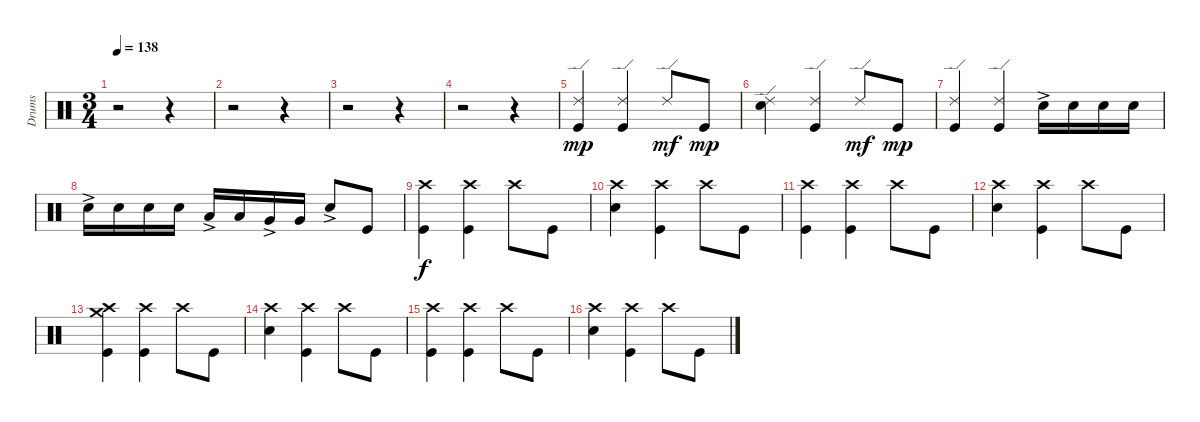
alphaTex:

\track ("Drums" "Drums") {instrument percussion}
\staff {score}
\articulation defaults
\ts (3 4)
\tempo 138
\clef neutral
\ks c
r.2{dy mp} r.4 |
r.2 r.4 |
r.2 r.4 |
r.2 r.4 |
("Ride (edge) 2" "Kick (hit)").4 ("Ride (edge) 2" "Kick (hit)").4 "Ride (edge) 2".8{dy mf} "Kick (hit)".8{dy mp} |
("Ride (edge) 2" "Snare (hit) 2").4 ("Ride (edge) 2" "Kick (hit)").4 "Ride (edge) 2".8{dy mf} "Kick (hit)".8{dy mp} |
("Ride (edge) 2" "Kick (hit)").4 ("Ride (edge) 2" "Kick (hit)").4 "Snare (hit) 2"{ac}.16 "Snare (hit) 2".16 "Snare (hit) 2".16 "Snare (hit) 2".16 |
"Snare (hit) 2"{ac}.16 "Snare (hit) 2".16 "Snare (hit) 2".16 "Snare (hit) 2".16 "Low Tom (hit)"{ac}.16 "Low Tom (hit)".16 "Very Low Tom (hit)"{ac}.16 "Very Low Tom (hit)".16 "Snare (hit) 2"{ac}.8 "Kick (hit)".8 |
("Crash high (hit)" "Kick (hit)").4{dy f} ("Crash high (hit)" "Kick (hit)").4 "Crash high (hit)".8 "Kick (hit)".8 |
("Crash high (hit)" "Snare (hit) 2").4 ("Crash high (hit)" "Kick (hit)").4 "Crash high (hit)".8 "Kick (hit)".8 |
("Crash high (hit)" "Kick (hit)").4 ("Crash high (hit)" "Kick (hit)").4 "Crash high (hit)".8 "Kick (hit)".8 |
("Crash high (hit)" "Snare (hit) 2").4 ("Crash high (hit)" "Kick (hit)").4 "Crash high (hit)".8 "Kick (hit)".8 |
("Crash medium (hit)" "Crash high (hit)" "Kick (hit)").4 ("Crash high (hit)" "Kick (hit)").4 "Crash high (hit)".8 "Kick (hit)".8 |
("Crash high (hit)" "Snare (hit) 2").4 ("Crash high (hit)" "Kick (hit)").4 "Crash high (hit)".8 "Kick (hit)".8 |
("Crash high (hit)" "Kick (hit)").4 ("Crash high (hit)" "Kick (hit)").4 "Crash high (hit)".8 "Kick (hit)".8 |
("Crash high (hit)" "Snare (hit) 2").4 ("Crash high (hit)" "Kick (hit)").4 "Crash high (hit)".8 "Kick (hit)".8
